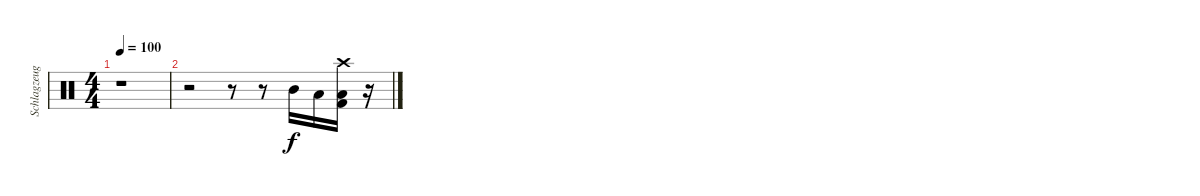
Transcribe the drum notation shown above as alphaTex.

\track ("Schlagzeug" "Schlagzeug") {instrument percussion}
\staff {score}
\articulation defaults
\ts (4 4)
\tempo 100
\clef neutral
\ks c
r.1{dy f} |
r.2 r.8 r.8 "Mid Tom (hit)".16 "Low Tom (hit)".16 ("Crash high (hit)" "Low Floor Tom (hit)" "Kick (hit) 2").16 r.16
